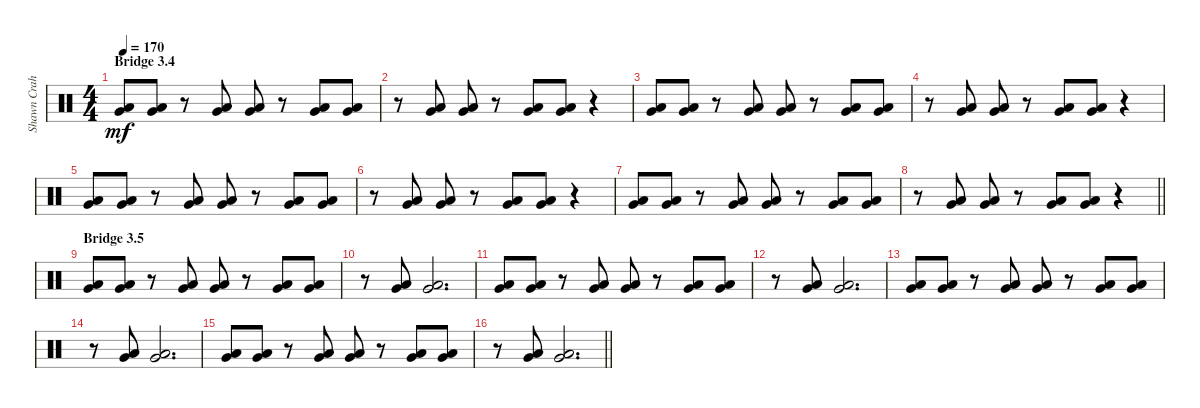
\track ("Shawn Crahan" "Shawn Crah") {instrument percussion}
\staff {score}
\articulation defaults
\ts (4 4)
\section ("" "Bridge 3.4")
\tempo 170
\clef neutral
\ks c
("Very Low Tom (hit)" "Low Floor Tom (hit)").8{dy mf} ("Very Low Tom (hit)" "Low Floor Tom (hit)").8 r.8 ("Very Low Tom (hit)" "Low Floor Tom (hit)").8 ("Very Low Tom (hit)" "Low Floor Tom (hit)").8 r.8 ("Very Low Tom (hit)" "Low Floor Tom (hit)").8 ("Very Low Tom (hit)" "Low Floor Tom (hit)").8 |
r.8 ("Very Low Tom (hit)" "Low Floor Tom (hit)").8 ("Very Low Tom (hit)" "Low Floor Tom (hit)").8 r.8 ("Very Low Tom (hit)" "Low Floor Tom (hit)").8 ("Very Low Tom (hit)" "Low Floor Tom (hit)").8 r.4 |
("Very Low Tom (hit)" "Low Floor Tom (hit)").8 ("Very Low Tom (hit)" "Low Floor Tom (hit)").8 r.8 ("Very Low Tom (hit)" "Low Floor Tom (hit)").8 ("Very Low Tom (hit)" "Low Floor Tom (hit)").8 r.8 ("Very Low Tom (hit)" "Low Floor Tom (hit)").8 ("Very Low Tom (hit)" "Low Floor Tom (hit)").8 |
r.8 ("Very Low Tom (hit)" "Low Floor Tom (hit)").8 ("Very Low Tom (hit)" "Low Floor Tom (hit)").8 r.8 ("Very Low Tom (hit)" "Low Floor Tom (hit)").8 ("Very Low Tom (hit)" "Low Floor Tom (hit)").8 r.4 |
("Very Low Tom (hit)" "Low Floor Tom (hit)").8 ("Very Low Tom (hit)" "Low Floor Tom (hit)").8 r.8 ("Very Low Tom (hit)" "Low Floor Tom (hit)").8 ("Very Low Tom (hit)" "Low Floor Tom (hit)").8 r.8 ("Very Low Tom (hit)" "Low Floor Tom (hit)").8 ("Very Low Tom (hit)" "Low Floor Tom (hit)").8 |
r.8 ("Very Low Tom (hit)" "Low Floor Tom (hit)").8 ("Very Low Tom (hit)" "Low Floor Tom (hit)").8 r.8 ("Very Low Tom (hit)" "Low Floor Tom (hit)").8 ("Very Low Tom (hit)" "Low Floor Tom (hit)").8 r.4 |
("Very Low Tom (hit)" "Low Floor Tom (hit)").8 ("Very Low Tom (hit)" "Low Floor Tom (hit)").8 r.8 ("Very Low Tom (hit)" "Low Floor Tom (hit)").8 ("Very Low Tom (hit)" "Low Floor Tom (hit)").8 r.8 ("Very Low Tom (hit)" "Low Floor Tom (hit)").8 ("Very Low Tom (hit)" "Low Floor Tom (hit)").8 |
\barLineRight lightlight
r.8 ("Very Low Tom (hit)" "Low Floor Tom (hit)").8 ("Very Low Tom (hit)" "Low Floor Tom (hit)").8 r.8 ("Very Low Tom (hit)" "Low Floor Tom (hit)").8 ("Very Low Tom (hit)" "Low Floor Tom (hit)").8 r.4 |
\section ("" "Bridge 3.5")
("Very Low Tom (hit)" "Low Floor Tom (hit)").8 ("Very Low Tom (hit)" "Low Floor Tom (hit)").8 r.8 ("Very Low Tom (hit)" "Low Floor Tom (hit)").8 ("Very Low Tom (hit)" "Low Floor Tom (hit)").8 r.8 ("Very Low Tom (hit)" "Low Floor Tom (hit)").8 ("Very Low Tom (hit)" "Low Floor Tom (hit)").8 |
r.8 ("Very Low Tom (hit)" "Low Floor Tom (hit)").8 ("Very Low Tom (hit)" "Low Floor Tom (hit)").2{d} |
("Very Low Tom (hit)" "Low Floor Tom (hit)").8 ("Very Low Tom (hit)" "Low Floor Tom (hit)").8 r.8 ("Very Low Tom (hit)" "Low Floor Tom (hit)").8 ("Very Low Tom (hit)" "Low Floor Tom (hit)").8 r.8 ("Very Low Tom (hit)" "Low Floor Tom (hit)").8 ("Very Low Tom (hit)" "Low Floor Tom (hit)").8 |
r.8 ("Very Low Tom (hit)" "Low Floor Tom (hit)").8 ("Very Low Tom (hit)" "Low Floor Tom (hit)").2{d} |
("Very Low Tom (hit)" "Low Floor Tom (hit)").8 ("Very Low Tom (hit)" "Low Floor Tom (hit)").8 r.8 ("Very Low Tom (hit)" "Low Floor Tom (hit)").8 ("Very Low Tom (hit)" "Low Floor Tom (hit)").8 r.8 ("Very Low Tom (hit)" "Low Floor Tom (hit)").8 ("Very Low Tom (hit)" "Low Floor Tom (hit)").8 |
r.8 ("Very Low Tom (hit)" "Low Floor Tom (hit)").8 ("Very Low Tom (hit)" "Low Floor Tom (hit)").2{d} |
("Very Low Tom (hit)" "Low Floor Tom (hit)").8 ("Very Low Tom (hit)" "Low Floor Tom (hit)").8 r.8 ("Very Low Tom (hit)" "Low Floor Tom (hit)").8 ("Very Low Tom (hit)" "Low Floor Tom (hit)").8 r.8 ("Very Low Tom (hit)" "Low Floor Tom (hit)").8 ("Very Low Tom (hit)" "Low Floor Tom (hit)").8 |
\barLineRight lightlight
r.8 ("Very Low Tom (hit)" "Low Floor Tom (hit)").8 ("Very Low Tom (hit)" "Low Floor Tom (hit)").2{d}
